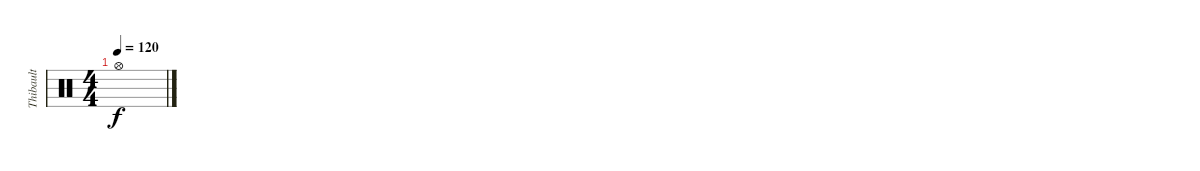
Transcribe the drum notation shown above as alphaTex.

\track ("Thibault" "Thibault") {instrument percussion}
\staff {score}
\articulation defaults
\ts (4 4)
\tempo 120
\clef neutral
\ks c "Hi-Hat (open)".1{dy f}
